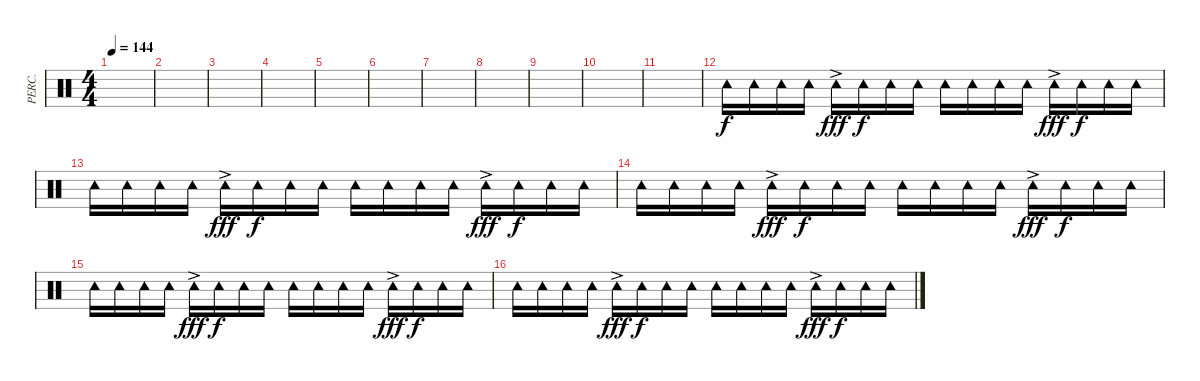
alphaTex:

\track ("PERC." "PERC.") {instrument percussion}
\staff {score}
\articulation defaults
\ts (4 4)
\tempo 144
\clef neutral
\ks c
|
|
|
|
|
|
|
|
|
|
|
"Tambourine (hit)".16 "Tambourine (hit)".16 "Tambourine (hit)".16 "Tambourine (hit)".16 "Tambourine (hit)"{ac}.16{dy fff} "Tambourine (hit)".16{dy f} "Tambourine (hit)".16 "Tambourine (hit)".16 "Tambourine (hit)".16 "Tambourine (hit)".16 "Tambourine (hit)".16 "Tambourine (hit)".16 "Tambourine (hit)"{ac}.16{dy fff} "Tambourine (hit)".16{dy f} "Tambourine (hit)".16 "Tambourine (hit)".16 |
"Tambourine (hit)".16 "Tambourine (hit)".16 "Tambourine (hit)".16 "Tambourine (hit)".16 "Tambourine (hit)"{ac}.16{dy fff} "Tambourine (hit)".16{dy f} "Tambourine (hit)".16 "Tambourine (hit)".16 "Tambourine (hit)".16 "Tambourine (hit)".16 "Tambourine (hit)".16 "Tambourine (hit)".16 "Tambourine (hit)"{ac}.16{dy fff} "Tambourine (hit)".16{dy f} "Tambourine (hit)".16 "Tambourine (hit)".16 |
"Tambourine (hit)".16 "Tambourine (hit)".16 "Tambourine (hit)".16 "Tambourine (hit)".16 "Tambourine (hit)"{ac}.16{dy fff} "Tambourine (hit)".16{dy f} "Tambourine (hit)".16 "Tambourine (hit)".16 "Tambourine (hit)".16 "Tambourine (hit)".16 "Tambourine (hit)".16 "Tambourine (hit)".16 "Tambourine (hit)"{ac}.16{dy fff} "Tambourine (hit)".16{dy f} "Tambourine (hit)".16 "Tambourine (hit)".16 |
"Tambourine (hit)".16 "Tambourine (hit)".16 "Tambourine (hit)".16 "Tambourine (hit)".16 "Tambourine (hit)"{ac}.16{dy fff} "Tambourine (hit)".16{dy f} "Tambourine (hit)".16 "Tambourine (hit)".16 "Tambourine (hit)".16 "Tambourine (hit)".16 "Tambourine (hit)".16 "Tambourine (hit)".16 "Tambourine (hit)"{ac}.16{dy fff} "Tambourine (hit)".16{dy f} "Tambourine (hit)".16 "Tambourine (hit)".16 |
"Tambourine (hit)".16 "Tambourine (hit)".16 "Tambourine (hit)".16 "Tambourine (hit)".16 "Tambourine (hit)"{ac}.16{dy fff} "Tambourine (hit)".16{dy f} "Tambourine (hit)".16 "Tambourine (hit)".16 "Tambourine (hit)".16 "Tambourine (hit)".16 "Tambourine (hit)".16 "Tambourine (hit)".16 "Tambourine (hit)"{ac}.16{dy fff} "Tambourine (hit)".16{dy f} "Tambourine (hit)".16 "Tambourine (hit)".16
